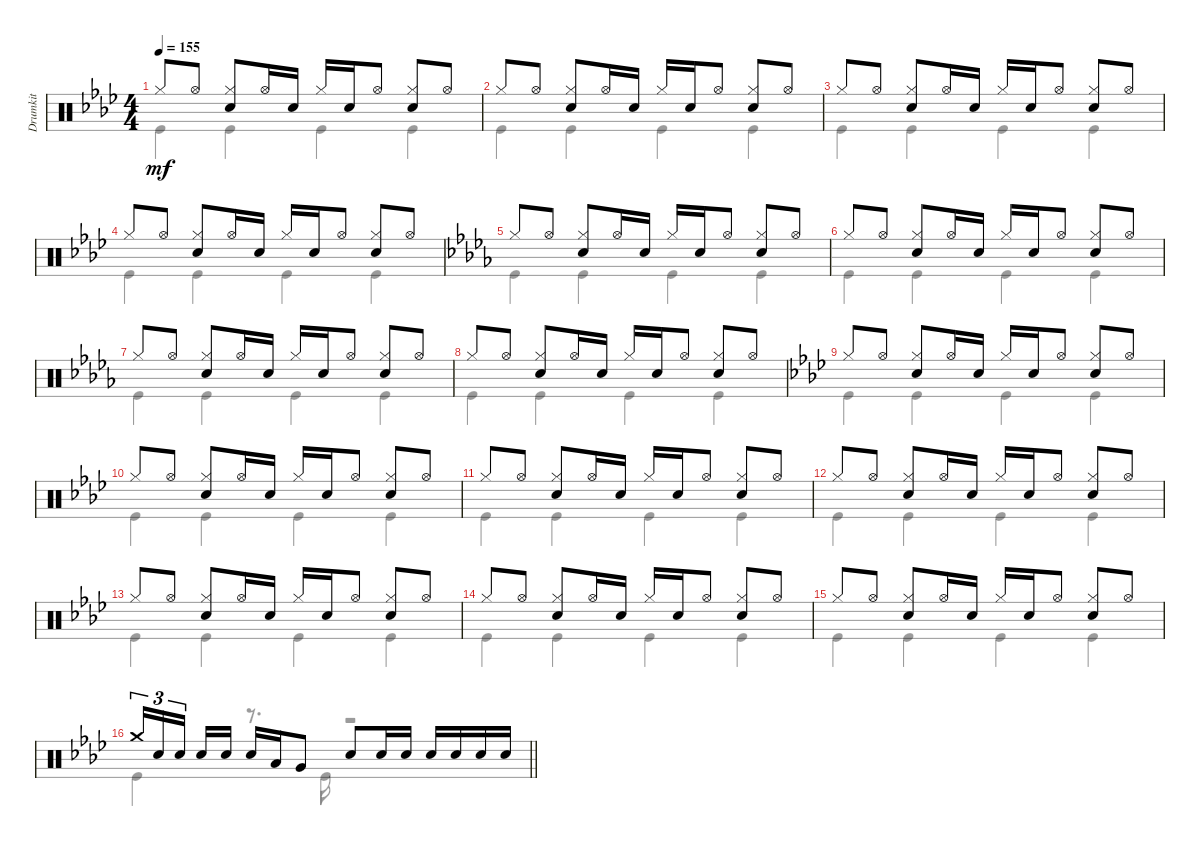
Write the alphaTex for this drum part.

\track ("Drumkit" "Drumkit") {instrument percussion}
\staff {score}
\articulation defaults
\voice
\ts (4 4)
\tempo 155
\clef neutral
\ks ab "Hi-Hat (closed)".8{dy mf} "Hi-Hat (open)".8
("Hi-Hat (closed)" "Snare (hit) 2").8 "Hi-Hat (open)".16 "Snare (hit) 2".16 "Hi-Hat (closed)".16 "Snare (hit) 2".16 "Hi-Hat (open)".8 ("Hi-Hat (closed)" "Snare (hit) 2").8 "Hi-Hat (open)".8 |
"Hi-Hat (closed)".8 "Hi-Hat (open)".8 ("Hi-Hat (closed)" "Snare (hit) 2").8 "Hi-Hat (open)".16 "Snare (hit) 2".16 "Hi-Hat (closed)".16 "Snare (hit) 2".16 "Hi-Hat (open)".8 ("Hi-Hat (closed)" "Snare (hit) 2").8 "Hi-Hat (open)".8 |
"Hi-Hat (closed)".8 "Hi-Hat (open)".8 ("Hi-Hat (closed)" "Snare (hit) 2").8 "Hi-Hat (open)".16 "Snare (hit) 2".16 "Hi-Hat (closed)".16 "Snare (hit) 2".16 "Hi-Hat (open)".8 ("Hi-Hat (closed)" "Snare (hit) 2").8 "Hi-Hat (open)".8 |
"Hi-Hat (closed)".8 "Hi-Hat (open)".8 ("Hi-Hat (closed)" "Snare (hit) 2").8 "Hi-Hat (open)".16 "Snare (hit) 2".16 "Hi-Hat (closed)".16 "Snare (hit) 2".16 "Hi-Hat (open)".8 ("Hi-Hat (closed)" "Snare (hit) 2").8 "Hi-Hat (open)".8 |
\ks db "Hi-Hat (closed)".8 "Hi-Hat (open)".8
("Hi-Hat (closed)" "Snare (hit) 2").8 "Hi-Hat (open)".16 "Snare (hit) 2".16 "Hi-Hat (closed)".16 "Snare (hit) 2".16 "Hi-Hat (open)".8 ("Hi-Hat (closed)" "Snare (hit) 2").8 "Hi-Hat (open)".8 |
"Hi-Hat (closed)".8 "Hi-Hat (open)".8 ("Hi-Hat (closed)" "Snare (hit) 2").8 "Hi-Hat (open)".16 "Snare (hit) 2".16 "Hi-Hat (closed)".16 "Snare (hit) 2".16 "Hi-Hat (open)".8 ("Hi-Hat (closed)" "Snare (hit) 2").8 "Hi-Hat (open)".8 |
"Hi-Hat (closed)".8 "Hi-Hat (open)".8 ("Hi-Hat (closed)" "Snare (hit) 2").8 "Hi-Hat (open)".16 "Snare (hit) 2".16 "Hi-Hat (closed)".16 "Snare (hit) 2".16 "Hi-Hat (open)".8 ("Hi-Hat (closed)" "Snare (hit) 2").8 "Hi-Hat (open)".8 |
"Hi-Hat (closed)".8 "Hi-Hat (open)".8 ("Hi-Hat (closed)" "Snare (hit) 2").8 "Hi-Hat (open)".16 "Snare (hit) 2".16 "Hi-Hat (closed)".16 "Snare (hit) 2".16 "Hi-Hat (open)".8 ("Hi-Hat (closed)" "Snare (hit) 2").8 "Hi-Hat (open)".8 |
\ks ab "Hi-Hat (closed)".8 "Hi-Hat (open)".8
("Hi-Hat (closed)" "Snare (hit) 2").8 "Hi-Hat (open)".16 "Snare (hit) 2".16 "Hi-Hat (closed)".16 "Snare (hit) 2".16 "Hi-Hat (open)".8 ("Hi-Hat (closed)" "Snare (hit) 2").8 "Hi-Hat (open)".8 |
"Hi-Hat (closed)".8 "Hi-Hat (open)".8 ("Hi-Hat (closed)" "Snare (hit) 2").8 "Hi-Hat (open)".16 "Snare (hit) 2".16 "Hi-Hat (closed)".16 "Snare (hit) 2".16 "Hi-Hat (open)".8 ("Hi-Hat (closed)" "Snare (hit) 2").8 "Hi-Hat (open)".8 |
"Hi-Hat (closed)".8 "Hi-Hat (open)".8 ("Hi-Hat (closed)" "Snare (hit) 2").8 "Hi-Hat (open)".16 "Snare (hit) 2".16 "Hi-Hat (closed)".16 "Snare (hit) 2".16 "Hi-Hat (open)".8 ("Hi-Hat (closed)" "Snare (hit) 2").8 "Hi-Hat (open)".8 |
"Hi-Hat (closed)".8 "Hi-Hat (open)".8 ("Hi-Hat (closed)" "Snare (hit) 2").8 "Hi-Hat (open)".16 "Snare (hit) 2".16 "Hi-Hat (closed)".16 "Snare (hit) 2".16 "Hi-Hat (open)".8 ("Hi-Hat (closed)" "Snare (hit) 2").8 "Hi-Hat (open)".8 |
"Hi-Hat (closed)".8 "Hi-Hat (open)".8 ("Hi-Hat (closed)" "Snare (hit) 2").8 "Hi-Hat (open)".16 "Snare (hit) 2".16 "Hi-Hat (closed)".16 "Snare (hit) 2".16 "Hi-Hat (open)".8 ("Hi-Hat (closed)" "Snare (hit) 2").8 "Hi-Hat (open)".8 |
"Hi-Hat (closed)".8 "Hi-Hat (open)".8 ("Hi-Hat (closed)" "Snare (hit) 2").8 "Hi-Hat (open)".16 "Snare (hit) 2".16 "Hi-Hat (closed)".16 "Snare (hit) 2".16 "Hi-Hat (open)".8 ("Hi-Hat (closed)" "Snare (hit) 2").8 "Hi-Hat (open)".8 |
"Hi-Hat (closed)".8 "Hi-Hat (open)".8 ("Hi-Hat (closed)" "Snare (hit) 2").8 "Hi-Hat (open)".16 "Snare (hit) 2".16 "Hi-Hat (closed)".16 "Snare (hit) 2".16 "Hi-Hat (open)".8 ("Hi-Hat (closed)" "Snare (hit) 2").8 "Hi-Hat (open)".8 |
\barLineRight lightlight "Crash medium (hit)".16{tu (3 2)} "Snare (hit) 2".16{tu (3 2)} "Snare (hit) 2".16{tu (3 2) beam splitsecondary} "Snare (hit) 2".16 "Snare (hit) 2".16 "Snare (hit) 2".16 "Low Tom (hit)".16 "Very Low Tom (hit)".8 "Snare (hit) 2".8 "Snare (hit) 2".16 "Snare (hit) 2".16 "Snare (hit) 2".16 "Snare (hit) 2".16 "Snare (hit) 2".16 "Snare (hit) 2".16
\voice
\clef neutral
\ottava regular
\simile none
\ks ab "Kick (hit)".4{dy mf} "Kick (hit)".4 "Kick (hit)".4 "Kick (hit)".4
|
"Kick (hit)".4 "Kick (hit)".4 "Kick (hit)".4 "Kick (hit)".4 |
"Kick (hit)".4 "Kick (hit)".4 "Kick (hit)".4 "Kick (hit)".4 |
"Kick (hit)".4 "Kick (hit)".4 "Kick (hit)".4 "Kick (hit)".4 |
\ks db "Kick (hit)".4 "Kick (hit)".4 "Kick (hit)".4 "Kick (hit)".4
|
"Kick (hit)".4 "Kick (hit)".4 "Kick (hit)".4 "Kick (hit)".4 |
"Kick (hit)".4 "Kick (hit)".4 "Kick (hit)".4 "Kick (hit)".4 |
"Kick (hit)".4 "Kick (hit)".4 "Kick (hit)".4 "Kick (hit)".4 |
\ks ab "Kick (hit)".4 "Kick (hit)".4 "Kick (hit)".4 "Kick (hit)".4
|
"Kick (hit)".4 "Kick (hit)".4 "Kick (hit)".4 "Kick (hit)".4 |
"Kick (hit)".4 "Kick (hit)".4 "Kick (hit)".4 "Kick (hit)".4 |
"Kick (hit)".4 "Kick (hit)".4 "Kick (hit)".4 "Kick (hit)".4 |
"Kick (hit)".4 "Kick (hit)".4 "Kick (hit)".4 "Kick (hit)".4 |
"Kick (hit)".4 "Kick (hit)".4 "Kick (hit)".4 "Kick (hit)".4 |
"Kick (hit)".4 "Kick (hit)".4 "Kick (hit)".4 "Kick (hit)".4 |
\barLineRight lightlight "Kick (hit)".4
r.8{d} "Kick (hit)".16 r.2
